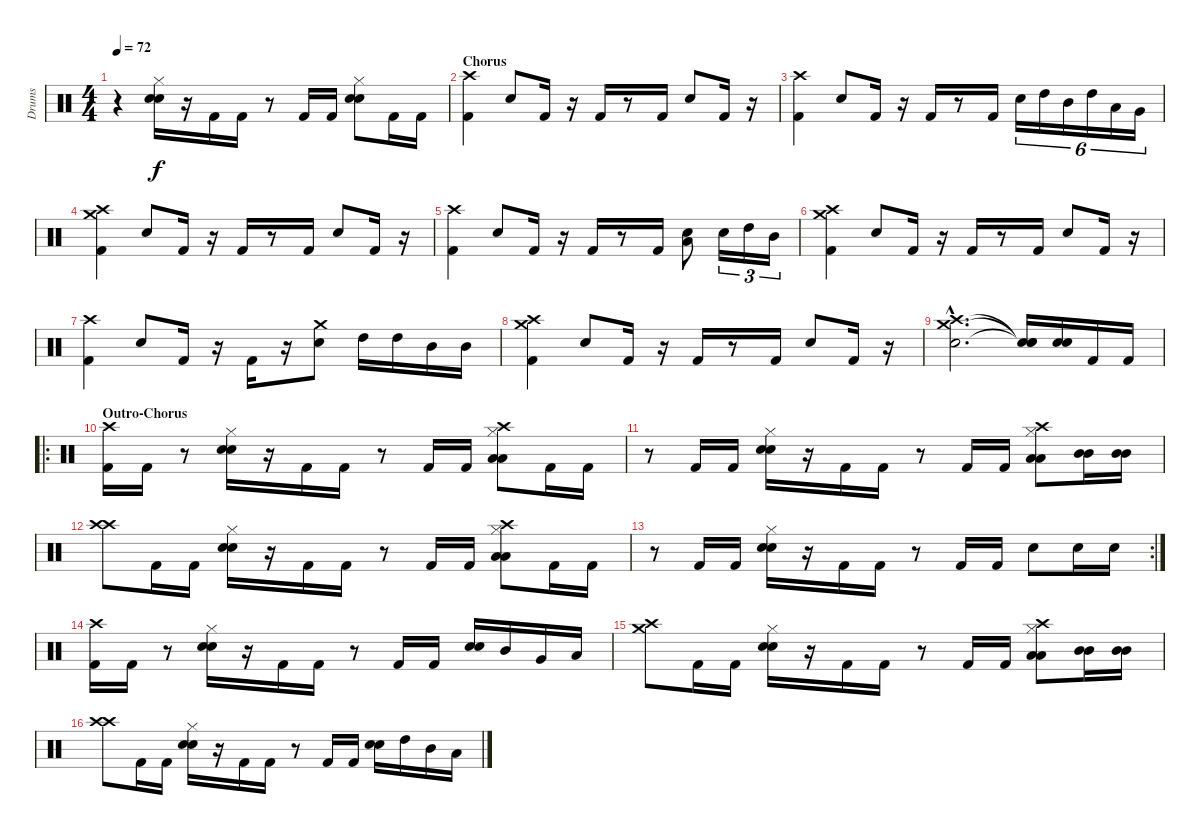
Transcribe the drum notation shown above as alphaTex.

\track ("Drums" "Drums") {instrument percussion}
\staff {score}
\articulation defaults
\ts (4 4)
\tempo 72
\clef neutral
\ks c
r.4{dy f} ("Hi-Hat (closed)" "Electric Snare (hit)" "Electric Snare (hit)").16 r.16 "Kick (hit) 2".16 "Kick (hit) 2".16 r.8 "Kick (hit) 2".16 "Kick (hit) 2".16 ("Hi-Hat (closed)" "Electric Snare (hit)" "Electric Snare (hit)").8 "Kick (hit) 2".16 "Kick (hit) 2".16 |
\section ("" "Chorus")
("Crash high (hit)" "Kick (hit) 2").4 "Electric Snare (hit)".8 "Kick (hit) 2".16 r.16 "Kick (hit) 2".16 r.8 "Kick (hit) 2".16 "Electric Snare (hit)".8 "Kick (hit) 2".16 r.16 |
("Crash high (hit)" "Kick (hit) 2").4 "Electric Snare (hit)".8 "Kick (hit) 2".16 r.16 "Kick (hit) 2".16 r.8 "Kick (hit) 2".16 "Electric Snare (hit)".16{tu (6 4)} "High Tom (hit)".16{tu (6 4)} "Mid Tom (hit)".16{tu (6 4)} "High Tom (hit)".16{tu (6 4)} "Low Tom (hit)".16{tu (6 4)} "Very Low Tom (hit)".16{tu (6 4)} |
("Crash medium (hit)" "Crash high (hit)" "Kick (hit) 2").4 "Electric Snare (hit)".8 "Kick (hit) 2".16 r.16 "Kick (hit) 2".16 r.8 "Kick (hit) 2".16 "Electric Snare (hit)".8 "Kick (hit) 2".16 r.16 |
("Crash high (hit)" "Kick (hit) 2").4 "Electric Snare (hit)".8 "Kick (hit) 2".16 r.16 "Kick (hit) 2".16 r.8 "Kick (hit) 2".16 ("Low Tom (hit)" "Electric Snare (hit)").8 "Electric Snare (hit)".16{tu (3 2)} "High Tom (hit)".16{tu (3 2)} "Mid Tom (hit)".16{tu (3 2)} |
("Crash medium (hit)" "Crash high (hit)" "Kick (hit) 2").4 "Electric Snare (hit)".8 "Kick (hit) 2".16 r.16 "Kick (hit) 2".16 r.8 "Kick (hit) 2".16 "Electric Snare (hit)".8 "Kick (hit) 2".16 r.16 |
("Crash high (hit)" "Kick (hit) 2").4 "Electric Snare (hit)".8 "Kick (hit) 2".16 r.16 "Kick (hit) 2".16 r.16 ("Crash medium (hit)" "Electric Snare (hit)").8 "High Tom (hit)".16 "High Tom (hit)".16 "Mid Tom (hit)".16 "Mid Tom (hit)".16 |
("Crash medium (hit)" "Crash high (hit)" "Kick (hit) 2").4 "Electric Snare (hit)".8 "Kick (hit) 2".16 r.16 "Kick (hit) 2".16 r.8 "Kick (hit) 2".16 "Electric Snare (hit)".8 "Kick (hit) 2".16 r.16 |
("Crash high (hit)"{hac} "Crash medium (hit)"{hac} "Electric Snare (hit)"{hac}).2{d} ("Snare (hit)"{t} "Snare (hit)"{t} "Snare (hit)"{t}).16 ("Electric Snare (hit)" "Electric Snare (hit)").16 "Kick (hit) 2".16 "Kick (hit) 2".16 |
\ro
\section ("" "Outro-Chorus")
("Crash high (hit)" "Kick (hit) 2").16 "Kick (hit) 2".16 r.8 ("Hi-Hat (closed)" "Electric Snare (hit)" "Electric Snare (hit)").16 r.16 "Kick (hit) 2".16 "Kick (hit) 2".16 r.8 "Kick (hit) 2".16 "Kick (hit) 2".16 ("Crash high (hit)" "Hi-Hat (closed)" "Low Tom (hit)" "Low Tom (hit)").8 "Kick (hit) 2".16 "Kick (hit) 2".16 |
r.8 "Kick (hit) 2".16 "Kick (hit) 2".16 ("Hi-Hat (closed)" "Electric Snare (hit)" "Electric Snare (hit)").16 r.16 "Kick (hit) 2".16 "Kick (hit) 2".16 r.8 "Kick (hit) 2".16 "Kick (hit) 2".16 ("Hi-Hat (closed)" "Crash high (hit)" "Low Tom (hit)" "Low Tom (hit)").8 ("Mid Tom (hit)" "Mid Tom (hit)").16 ("Mid Tom (hit)" "Mid Tom (hit)").16 |
("Crash high (hit)" "Crash high (hit)").8 "Kick (hit) 2".16 "Kick (hit) 2".16 ("Hi-Hat (closed)" "Electric Snare (hit)" "Electric Snare (hit)").16 r.16 "Kick (hit) 2".16 "Kick (hit) 2".16 r.8 "Kick (hit) 2".16 "Kick (hit) 2".16 ("Crash high (hit)" "Hi-Hat (closed)" "Low Tom (hit)" "Low Tom (hit)").8 "Kick (hit) 2".16 "Kick (hit) 2".16 |
\rc 2
r.8 "Kick (hit) 2".16 "Kick (hit) 2".16 ("Hi-Hat (closed)" "Electric Snare (hit)" "Electric Snare (hit)").16 r.16 "Kick (hit) 2".16 "Kick (hit) 2".16 r.8 "Kick (hit) 2".16 "Kick (hit) 2".16 "Electric Snare (hit)".8 "Electric Snare (hit)".16 "Electric Snare (hit)".16 |
("Crash high (hit)" "Kick (hit) 2").16 "Kick (hit) 2".16 r.8 ("Hi-Hat (closed)" "Electric Snare (hit)" "Electric Snare (hit)").16 r.16 "Kick (hit) 2".16 "Kick (hit) 2".16 r.8 "Kick (hit) 2".16 "Kick (hit) 2".16 ("Electric Snare (hit)" "Electric Snare (hit)").16 "Mid Tom (hit)".16 "Very Low Tom (hit)".16 "Low Tom (hit)".16 |
("Crash high (hit)" "Crash medium (hit)").8 "Kick (hit) 2".16 "Kick (hit) 2".16 ("Hi-Hat (closed)" "Electric Snare (hit)" "Electric Snare (hit)").16 r.16 "Kick (hit) 2".16 "Kick (hit) 2".16 r.8 "Kick (hit) 2".16 "Kick (hit) 2".16 ("Hi-Hat (closed)" "Crash high (hit)" "Low Tom (hit)" "Low Tom (hit)").8 ("Mid Tom (hit)" "Mid Tom (hit)").16 ("Mid Tom (hit)" "Mid Tom (hit)").16 |
("Crash high (hit)" "Crash high (hit)").8 "Kick (hit) 2".16 "Kick (hit) 2".16 ("Hi-Hat (closed)" "Electric Snare (hit)" "Electric Snare (hit)").16 r.16 "Kick (hit) 2".16 "Kick (hit) 2".16 r.8 "Kick (hit) 2".16 "Kick (hit) 2".16 ("Electric Snare (hit)" "Electric Snare (hit)").16 "High Tom (hit)".16 "Mid Tom (hit)".16 "Low Tom (hit)".16
